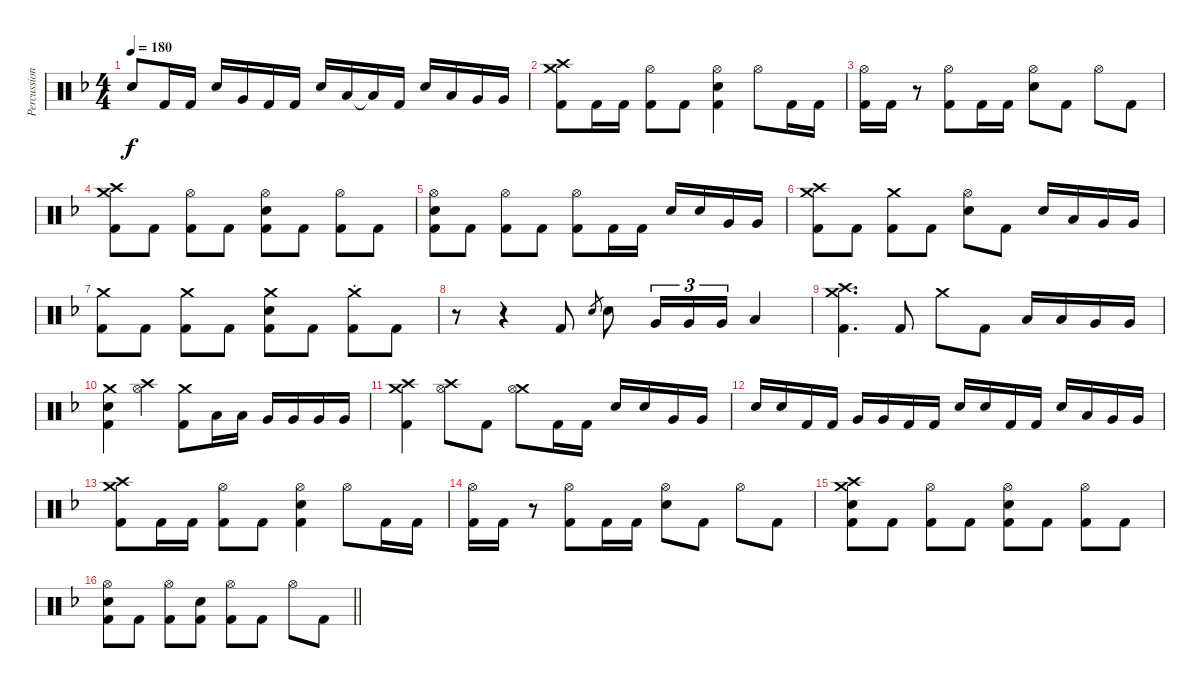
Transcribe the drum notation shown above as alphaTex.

\track ("Percussion" "Percussion") {instrument percussion}
\staff {score}
\articulation defaults
\ts (4 4)
\tempo 180
\clef neutral
\ks f "Electric Snare (hit)".8{dy f} "Kick (hit) 2".16 "Kick (hit) 2".16 "Electric Snare (hit)".16 "Very Low Tom (hit)".16 "Kick (hit) 2".16 "Kick (hit) 2".16 "Electric Snare (hit)".16 "Low Floor Tom (hit)".16 "Low Floor Tom (hit)"{t}.16 "Kick (hit) 2".16 "Electric Snare (hit)".16 "Low Tom (hit)".16 "Very Low Tom (hit)".16 "Very Low Tom (hit)".16
|
("Crash medium (hit)" "Crash high (hit)" "Kick (hit) 2").8 "Kick (hit) 2".16 "Kick (hit) 2".16 ("Hi-Hat (open)" "Kick (hit) 2").8 "Kick (hit) 2".8 ("Hi-Hat (open)" "Electric Snare (hit)" "Kick (hit) 2").4 "Hi-Hat (open)".8 "Kick (hit) 2".16 "Kick (hit) 2".16 |
("Hi-Hat (open)" "Kick (hit) 2").16 "Kick (hit) 2".16 r.8 ("Hi-Hat (open)" "Kick (hit) 2").8 "Kick (hit) 2".16 "Kick (hit) 2".16 ("Hi-Hat (open)" "Electric Snare (hit)").8 "Kick (hit) 2".8 "Hi-Hat (open)".8 "Kick (hit) 2".8 |
("Crash medium (hit)" "Crash high (hit)" "Kick (hit) 2").8 "Kick (hit) 2".8 ("Hi-Hat (open)" "Kick (hit) 2").8 "Kick (hit) 2".8 ("Hi-Hat (open)" "Electric Snare (hit)" "Kick (hit) 2").8 "Kick (hit) 2".8 ("Hi-Hat (open)" "Kick (hit) 2").8 "Kick (hit) 2".8 |
("Hi-Hat (open)" "Electric Snare (hit)" "Kick (hit) 2").8 "Kick (hit) 2".8 ("Hi-Hat (open)" "Kick (hit) 2").8 "Kick (hit) 2".8 ("Hi-Hat (open)" "Kick (hit) 2").8 "Kick (hit) 2".16 "Kick (hit) 2".16 "Electric Snare (hit)".16 "Electric Snare (hit)".16 "Very Low Tom (hit)".16 "Very Low Tom (hit)".16 |
("Crash medium (hit)" "Crash high (hit)" "Kick (hit) 2").8 "Kick (hit) 2".8 ("Crash medium (hit)" "Kick (hit) 2").8 "Kick (hit) 2".8 ("Hi-Hat (open)" "Electric Snare (hit)").8 "Kick (hit) 2".8 "Electric Snare (hit)".16 "Low Tom (hit)".16 "Very Low Tom (hit)".16 "Very Low Tom (hit)".16 |
("Crash medium (hit)" "Kick (hit) 2").8 "Kick (hit) 2".8 ("Crash medium (hit)" "Kick (hit) 2").8 "Kick (hit) 2".8 ("Crash medium (hit)" "Electric Snare (hit)" "Kick (hit) 2").8 "Kick (hit) 2".8 ("Crash medium (hit)"{st} "Kick (hit) 2").8 "Kick (hit) 2".8 |
r.8{volume 0} r.4 "Kick (hit) 2".8{volume 14} "Electric Snare (hit)".8{gr} "Electric Snare (hit)".8 "Very Low Tom (hit)".16{tu (3 2)} "Very Low Tom (hit)".16{tu (3 2)} "Very Low Tom (hit)".16{tu (3 2)} "Low Floor Tom (hit)".4 |
("Crash medium (hit)" "Crash high (hit)" "Kick (hit) 2").4{d} "Kick (hit) 2".8 "Crash medium (hit)".8 "Kick (hit) 2".8 "Low Tom (hit)".16 "Low Tom (hit)".16 "Very Low Tom (hit)".16 "Very Low Tom (hit)".16 |
("Crash medium (hit)" "Electric Snare (hit)" "Kick (hit) 2").4 ("Crash high (hit)" "Hi-Hat (open)").4 ("Crash medium (hit)" "Kick (hit) 2").8 "Low Tom (hit)".16 "Low Tom (hit)".16 "Very Low Tom (hit)".16 "Very Low Tom (hit)".16 "Very Low Tom (hit)".16 "Very Low Tom (hit)".16 |
("Crash medium (hit)" "Crash high (hit)" "Kick (hit) 2").4 ("Crash high (hit)" "Hi-Hat (open)").8 "Kick (hit) 2".8 ("Crash medium (hit)" "Hi-Hat (open)").8 "Kick (hit) 2".16 "Kick (hit) 2".16 "Electric Snare (hit)".16 "Electric Snare (hit)".16 "Very Low Tom (hit)".16 "Very Low Tom (hit)".16 |
"Electric Snare (hit)".16 "Electric Snare (hit)".16 "Kick (hit) 2".16 "Kick (hit) 2".16 "Very Low Tom (hit)".16 "Very Low Tom (hit)".16 "Kick (hit) 2".16 "Kick (hit) 2".16 "Electric Snare (hit)".16 "Electric Snare (hit)".16 "Kick (hit) 2".16 "Kick (hit) 2".16 "Electric Snare (hit)".16 "Low Tom (hit)".16 "Very Low Tom (hit)".16 "Very Low Tom (hit)".16 |
("Crash medium (hit)" "Crash high (hit)" "Kick (hit) 2").8 "Kick (hit) 2".16 "Kick (hit) 2".16 ("Hi-Hat (open)" "Kick (hit) 2").8 "Kick (hit) 2".8 ("Hi-Hat (open)" "Electric Snare (hit)" "Kick (hit) 2").4 "Hi-Hat (open)".8 "Kick (hit) 2".16 "Kick (hit) 2".16 |
("Hi-Hat (open)" "Kick (hit) 2").16 "Kick (hit) 2".16 r.8 ("Hi-Hat (open)" "Kick (hit) 2").8 "Kick (hit) 2".16 "Kick (hit) 2".16 ("Hi-Hat (open)" "Electric Snare (hit)").8 "Kick (hit) 2".8 "Hi-Hat (open)".8 "Kick (hit) 2".8 |
("Crash medium (hit)" "Crash high (hit)" "Electric Snare (hit)" "Kick (hit) 2").8 "Kick (hit) 2".8 ("Hi-Hat (open)" "Kick (hit) 2").8 "Kick (hit) 2".8 ("Hi-Hat (open)" "Electric Snare (hit)" "Kick (hit) 2").8 "Kick (hit) 2".8 ("Hi-Hat (open)" "Kick (hit) 2").8 "Kick (hit) 2".8 |
\barLineRight lightlight
("Hi-Hat (open)" "Electric Snare (hit)" "Kick (hit) 2").8 "Kick (hit) 2".8 ("Hi-Hat (open)" "Kick (hit) 2").8 ("Electric Snare (hit)" "Kick (hit) 2").8 ("Hi-Hat (open)" "Kick (hit) 2").8 "Kick (hit) 2".8 "Hi-Hat (open)".8 "Kick (hit) 2".8
